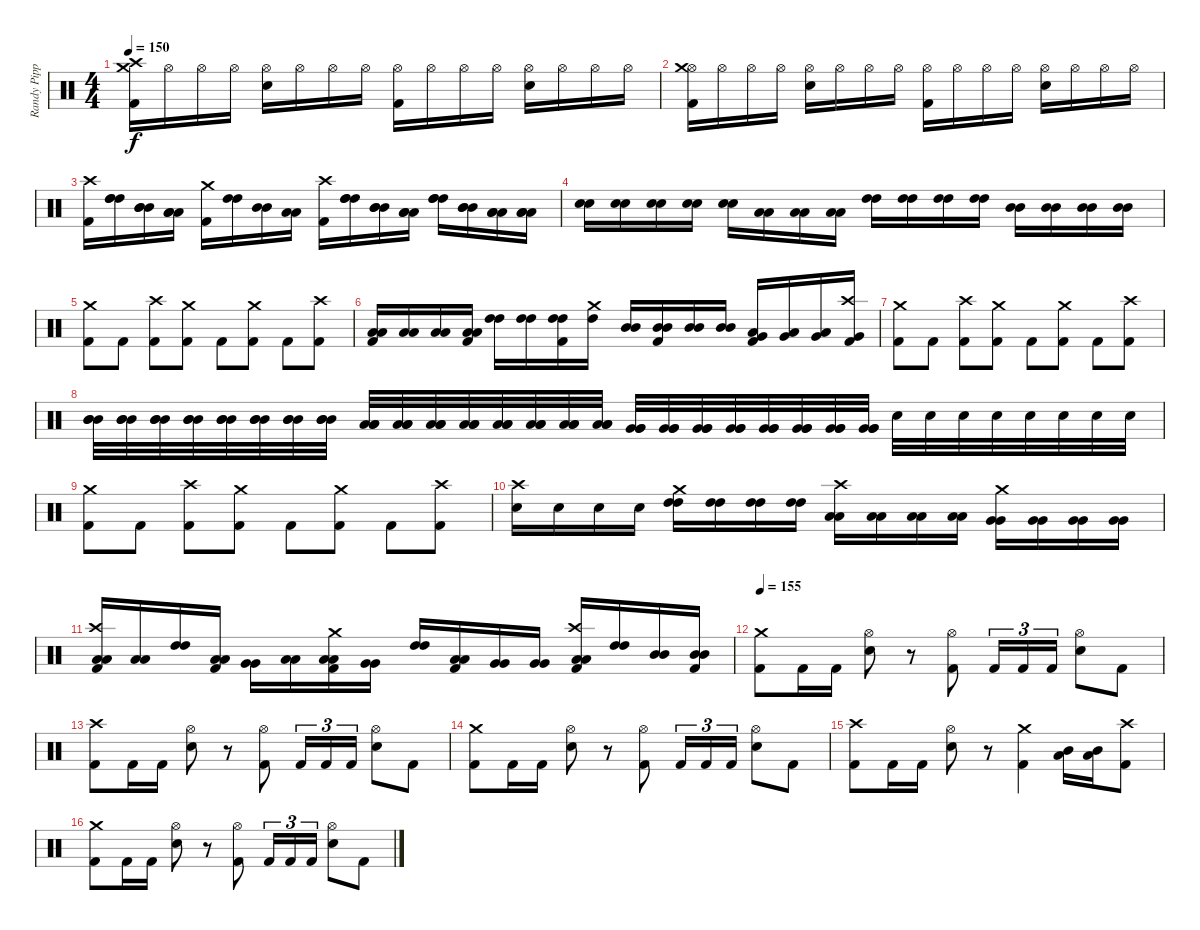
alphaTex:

\track ("Randy Pipper" "Randy Pipp") {instrument percussion}
\staff {score}
\articulation defaults
\ts (4 4)
\tempo 150
\clef neutral
\ks c
("Crash medium (hit)" "Kick (hit) 2" "Crash high (hit)").16{dy f} "Hi-Hat (open)".16 "Hi-Hat (open)".16 "Hi-Hat (open)".16 ("Hi-Hat (open)" "Snare (hit) 2").16 "Hi-Hat (open)".16 "Hi-Hat (open)".16 "Hi-Hat (open)".16 ("Hi-Hat (open)" "Kick (hit) 2").16 "Hi-Hat (open)".16 "Hi-Hat (open)".16 "Hi-Hat (open)".16 ("Hi-Hat (open)" "Snare (hit) 2").16 "Hi-Hat (open)".16 "Hi-Hat (open)".16 "Hi-Hat (open)".16 |
("Hi-Hat (open)" "Kick (hit) 2" "Crash medium (hit)").16 "Hi-Hat (open)".16 "Hi-Hat (open)".16 "Hi-Hat (open)".16 ("Hi-Hat (open)" "Snare (hit) 2").16 "Hi-Hat (open)".16 "Hi-Hat (open)".16 "Hi-Hat (open)".16 ("Hi-Hat (open)" "Kick (hit) 2").16 "Hi-Hat (open)".16 "Hi-Hat (open)".16 "Hi-Hat (open)".16 ("Hi-Hat (open)" "Snare (hit) 2").16 "Hi-Hat (open)".16 "Hi-Hat (open)".16 "Hi-Hat (open)".16 |
("Kick (hit) 2" "Crash high (hit)").16 ("High Tom (hit)" "High Tom (hit)" "High Tom (hit)").16 ("Mid Tom (hit)" "Mid Tom (hit)" "Mid Tom (hit)").16 ("Low Tom (hit)" "Low Tom (hit)" "Low Tom (hit)").16 ("Kick (hit) 2" "Crash medium (hit)").16 ("High Tom (hit)" "High Tom (hit)").16 ("Mid Tom (hit)" "Mid Tom (hit)").16 ("Low Tom (hit)" "Low Tom (hit)").16 ("Kick (hit) 2" "Crash high (hit)").16 ("High Tom (hit)" "High Tom (hit)" "High Tom (hit)").16 ("Mid Tom (hit)" "Mid Tom (hit)" "Mid Tom (hit)").16 ("Low Tom (hit)" "Low Tom (hit)" "Low Tom (hit)").16 ("High Tom (hit)" "High Tom (hit)" "High Tom (hit)").16 ("Mid Tom (hit)" "Mid Tom (hit)" "Mid Tom (hit)").16 ("Low Tom (hit)" "Low Tom (hit)" "Low Tom (hit)").16 ("Low Tom (hit)" "Low Tom (hit)" "Low Tom (hit)").16 |
("Snare (hit) 2" "Snare (hit) 2").16 ("Snare (hit) 2" "Snare (hit) 2").16 ("Snare (hit) 2" "Snare (hit) 2").16 ("Snare (hit) 2" "Snare (hit) 2").16 ("Snare (hit) 2" "Snare (hit) 2").16 ("Low Tom (hit)" "Low Tom (hit)").16 ("Low Tom (hit)" "Low Tom (hit)").16 ("Low Tom (hit)" "Low Tom (hit)").16 ("High Tom (hit)" "High Tom (hit)").16 ("High Tom (hit)" "High Tom (hit)").16 ("High Tom (hit)" "High Tom (hit)").16 ("High Tom (hit)" "High Tom (hit)").16 ("Mid Tom (hit)" "Mid Tom (hit)").16 ("Mid Tom (hit)" "Mid Tom (hit)").16 ("Mid Tom (hit)" "Mid Tom (hit)").16 ("Mid Tom (hit)" "Mid Tom (hit)").16 |
("Kick (hit) 2" "Crash medium (hit)").8 "Kick (hit) 2".8 ("Kick (hit) 2" "Crash high (hit)").8 ("Kick (hit) 2" "Crash medium (hit)").8 "Kick (hit) 2".8 ("Kick (hit) 2" "Crash medium (hit)").8 "Kick (hit) 2".8 ("Kick (hit) 2" "Crash high (hit)").8 |
("Low Tom (hit)" "Low Tom (hit)" "Kick (hit) 2").16 ("Low Tom (hit)" "Low Tom (hit)").16 ("Low Tom (hit)" "Low Tom (hit)").16 ("Low Tom (hit)" "Low Tom (hit)" "Kick (hit) 2").16 ("High Tom (hit)" "High Tom (hit)").16 ("High Tom (hit)" "High Tom (hit)").16 ("High Tom (hit)" "High Tom (hit)" "Kick (hit) 2").16 ("High Tom (hit)" "Crash medium (hit)").16 ("Mid Tom (hit)" "Mid Tom (hit)").16 ("Mid Tom (hit)" "Mid Tom (hit)" "Kick (hit) 2").16 ("Mid Tom (hit)" "Mid Tom (hit)").16 ("Mid Tom (hit)" "Mid Tom (hit)").16 ("Very Low Tom (hit)" "Low Tom (hit)" "Kick (hit) 2").16 ("Very Low Tom (hit)" "Low Tom (hit)").16 ("Very Low Tom (hit)" "Low Tom (hit)").16 ("Very Low Tom (hit)" "Crash high (hit)" "Kick (hit) 2").16 |
("Kick (hit) 2" "Crash medium (hit)").8 "Kick (hit) 2".8 ("Kick (hit) 2" "Crash high (hit)").8 ("Kick (hit) 2" "Crash medium (hit)").8 "Kick (hit) 2".8 ("Kick (hit) 2" "Crash medium (hit)").8 "Kick (hit) 2".8 ("Kick (hit) 2" "Crash high (hit)").8 |
("Mid Tom (hit)" "Mid Tom (hit)" "Mid Tom (hit)").32 ("Mid Tom (hit)" "Mid Tom (hit)" "Mid Tom (hit)").32 ("Mid Tom (hit)" "Mid Tom (hit)" "Mid Tom (hit)").32 ("Mid Tom (hit)" "Mid Tom (hit)" "Mid Tom (hit)").32 ("Mid Tom (hit)" "Mid Tom (hit)" "Mid Tom (hit)").32 ("Mid Tom (hit)" "Mid Tom (hit)" "Mid Tom (hit)").32 ("Mid Tom (hit)" "Mid Tom (hit)" "Mid Tom (hit)").32 ("Mid Tom (hit)" "Mid Tom (hit)" "Mid Tom (hit)").32 ("Low Tom (hit)" "Low Tom (hit)" "Low Tom (hit)").32 ("Low Tom (hit)" "Low Tom (hit)" "Low Tom (hit)").32 ("Low Tom (hit)" "Low Tom (hit)" "Low Tom (hit)").32 ("Low Tom (hit)" "Low Tom (hit)" "Low Tom (hit)").32 ("Low Tom (hit)" "Low Tom (hit)" "Low Tom (hit)").32 ("Low Tom (hit)" "Low Tom (hit)" "Low Tom (hit)").32 ("Low Tom (hit)" "Low Tom (hit)" "Low Tom (hit)").32 ("Low Tom (hit)" "Low Tom (hit)" "Low Tom (hit)").32 ("Very Low Tom (hit)" "Very Low Tom (hit)" "Very Low Tom (hit)").32 ("Very Low Tom (hit)" "Very Low Tom (hit)" "Very Low Tom (hit)").32 ("Very Low Tom (hit)" "Very Low Tom (hit)" "Very Low Tom (hit)").32 ("Very Low Tom (hit)" "Very Low Tom (hit)" "Very Low Tom (hit)").32 ("Very Low Tom (hit)" "Very Low Tom (hit)" "Very Low Tom (hit)").32 ("Very Low Tom (hit)" "Very Low Tom (hit)" "Very Low Tom (hit)").32 ("Very Low Tom (hit)" "Very Low Tom (hit)" "Very Low Tom (hit)").32 ("Very Low Tom (hit)" "Very Low Tom (hit)" "Very Low Tom (hit)").32 "Snare (hit) 2".32 "Snare (hit) 2".32 "Snare (hit) 2".32 "Snare (hit) 2".32 "Snare (hit) 2".32 "Snare (hit) 2".32 "Snare (hit) 2".32 "Snare (hit) 2".32 |
("Kick (hit) 2" "Crash medium (hit)").8 "Kick (hit) 2".8 ("Kick (hit) 2" "Crash high (hit)").8 ("Kick (hit) 2" "Crash medium (hit)").8 "Kick (hit) 2".8 ("Kick (hit) 2" "Crash medium (hit)").8 "Kick (hit) 2".8 ("Kick (hit) 2" "Crash high (hit)").8 |
("Snare (hit) 2" "Crash high (hit)").16 "Snare (hit) 2".16 "Snare (hit) 2".16 "Snare (hit) 2".16 ("High Tom (hit)" "High Tom (hit)" "Crash medium (hit)").16 ("High Tom (hit)" "High Tom (hit)").16 ("High Tom (hit)" "High Tom (hit)").16 ("High Tom (hit)" "High Tom (hit)").16 ("Low Tom (hit)" "Low Tom (hit)" "Crash high (hit)").16 ("Low Tom (hit)" "Low Tom (hit)").16 ("Low Tom (hit)" "Low Tom (hit)").16 ("Low Tom (hit)" "Low Tom (hit)").16 ("Very Low Tom (hit)" "Very Low Tom (hit)" "Crash medium (hit)").16 ("Very Low Tom (hit)" "Very Low Tom (hit)").16 ("Very Low Tom (hit)" "Very Low Tom (hit)").16 ("Very Low Tom (hit)" "Very Low Tom (hit)").16 |
("Low Tom (hit)" "Low Tom (hit)" "Kick (hit) 2" "Crash high (hit)").16 ("Low Tom (hit)" "Low Tom (hit)").16 ("High Tom (hit)" "High Tom (hit)").16 ("Low Tom (hit)" "Low Tom (hit)" "Kick (hit) 2").16 ("Very Low Tom (hit)" "Very Low Tom (hit)").16 ("Low Tom (hit)" "Low Tom (hit)").16 ("Low Tom (hit)" "Low Tom (hit)" "Kick (hit) 2" "Crash medium (hit)").16 ("Very Low Tom (hit)" "Very Low Tom (hit)").16 ("High Tom (hit)" "High Tom (hit)").16 ("Low Tom (hit)" "Low Tom (hit)" "Kick (hit) 2").16 ("Very Low Tom (hit)" "Very Low Tom (hit)").16 ("Very Low Tom (hit)" "Very Low Tom (hit)").16 ("Low Tom (hit)" "Low Tom (hit)" "Kick (hit) 2" "Crash high (hit)").16 ("High Tom (hit)" "High Tom (hit)").16 ("Mid Tom (hit)" "Mid Tom (hit)").16 ("Mid Tom (hit)" "Mid Tom (hit)" "Kick (hit) 2").16 |
\tempo 155
("Crash medium (hit)" "Kick (hit) 2").8 "Kick (hit) 2".16 "Kick (hit) 2".16 ("Hi-Hat (open)" "Snare (hit) 2").8 r.8 ("Hi-Hat (open)" "Kick (hit) 2").8 "Kick (hit) 2".16{tu (3 2)} "Kick (hit) 2".16{tu (3 2)} "Kick (hit) 2".16{tu (3 2)} ("Hi-Hat (open)" "Snare (hit) 2").8 "Kick (hit) 2".8 |
("Crash high (hit)" "Kick (hit) 2").8 "Kick (hit) 2".16 "Kick (hit) 2".16 ("Hi-Hat (open)" "Snare (hit) 2").8 r.8 ("Hi-Hat (open)" "Kick (hit) 2").8 "Kick (hit) 2".16{tu (3 2)} "Kick (hit) 2".16{tu (3 2)} "Kick (hit) 2".16{tu (3 2)} ("Hi-Hat (open)" "Snare (hit) 2").8 "Kick (hit) 2".8 |
("Crash medium (hit)" "Kick (hit) 2").8 "Kick (hit) 2".16 "Kick (hit) 2".16 ("Hi-Hat (open)" "Snare (hit) 2").8 r.8 ("Hi-Hat (open)" "Kick (hit) 2").8 "Kick (hit) 2".16{tu (3 2)} "Kick (hit) 2".16{tu (3 2)} "Kick (hit) 2".16{tu (3 2)} ("Hi-Hat (open)" "Snare (hit) 2").8 "Kick (hit) 2".8 |
("Crash high (hit)" "Kick (hit) 2").8 "Kick (hit) 2".16 "Kick (hit) 2".16 ("Hi-Hat (open)" "Snare (hit) 2").8 r.8 ("Crash medium (hit)" "Kick (hit) 2").4 ("Mid Tom (hit)" "Low Tom (hit)").16 ("Mid Tom (hit)" "Low Tom (hit)").16 ("Kick (hit) 2" "Crash high (hit)").8 |
("Crash medium (hit)" "Kick (hit) 2").8 "Kick (hit) 2".16 "Kick (hit) 2".16 ("Hi-Hat (open)" "Snare (hit) 2").8 r.8 ("Hi-Hat (open)" "Kick (hit) 2").8 "Kick (hit) 2".16{tu (3 2)} "Kick (hit) 2".16{tu (3 2)} "Kick (hit) 2".16{tu (3 2)} ("Hi-Hat (open)" "Snare (hit) 2").8 "Kick (hit) 2".8
